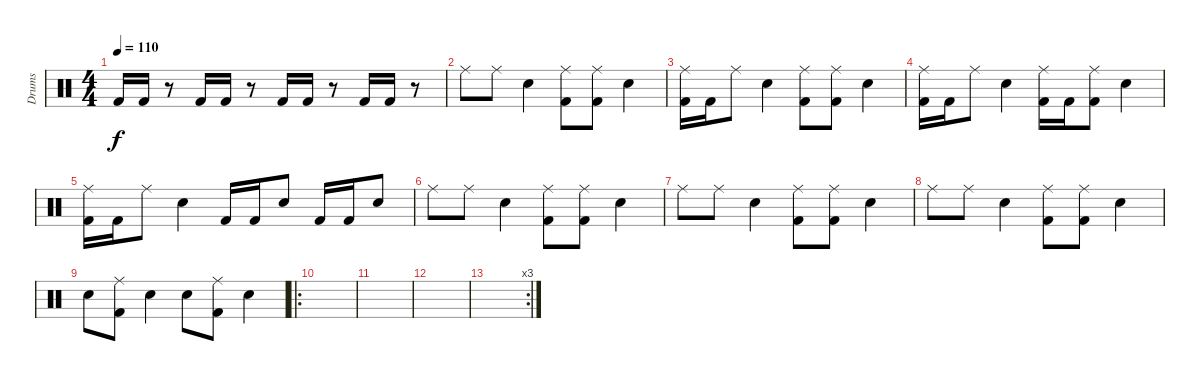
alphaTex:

\track ("Drums" "Drums") {instrument percussion}
\staff {score}
\articulation defaults
\ts (4 4)
\tempo 110
\clef neutral
\ks c "Kick (hit) 2".16{dy f} "Kick (hit) 2".16
r.8 "Kick (hit) 2".16 "Kick (hit) 2".16 r.8 "Kick (hit) 2".16 "Kick (hit) 2".16 r.8 "Kick (hit) 2".16 "Kick (hit) 2".16 r.8 |
"Ride (middle)".8 "Ride (middle)".8 "Snare (hit) 2".4 ("Ride (middle)" "Kick (hit) 2").8 ("Ride (middle)" "Kick (hit) 2").8 "Snare (hit) 2".4 |
("Ride (middle)" "Kick (hit) 2").16 "Kick (hit) 2".16 "Ride (middle)".8 "Snare (hit) 2".4 ("Ride (middle)" "Kick (hit) 2").8 ("Ride (middle)" "Kick (hit) 2").8 "Snare (hit) 2".4 |
("Ride (middle)" "Kick (hit) 2").16 "Kick (hit) 2".16 "Ride (middle)".8 "Snare (hit) 2".4 ("Ride (middle)" "Kick (hit) 2").16 "Kick (hit) 2".16 ("Ride (middle)" "Kick (hit) 2").8 "Snare (hit) 2".4 |
("Ride (middle)" "Kick (hit) 2").16 "Kick (hit) 2".16 "Ride (middle)".8 "Snare (hit) 2".4 "Kick (hit) 2".16 "Kick (hit) 2".16 "Snare (hit) 2".8 "Kick (hit) 2".16 "Kick (hit) 2".16 "Snare (hit) 2".8 |
"Ride (middle)".8 "Ride (middle)".8 "Snare (hit) 2".4 ("Ride (middle)" "Kick (hit) 2").8 ("Ride (middle)" "Kick (hit) 2").8 "Snare (hit) 2".4 |
"Ride (middle)".8 "Ride (middle)".8 "Snare (hit) 2".4 ("Ride (middle)" "Kick (hit) 2").8 ("Ride (middle)" "Kick (hit) 2").8 "Snare (hit) 2".4 |
"Ride (middle)".8 "Ride (middle)".8 "Snare (hit) 2".4 ("Ride (middle)" "Kick (hit) 2").8 ("Ride (middle)" "Kick (hit) 2").8 "Snare (hit) 2".4 |
"Snare (hit) 2".8 ("Ride (middle)" "Kick (hit) 2").8 "Snare (hit) 2".4 "Snare (hit) 2".8 ("Ride (middle)" "Kick (hit) 2").8 "Snare (hit) 2".4 |
\ro
|
|
|
\rc 3
